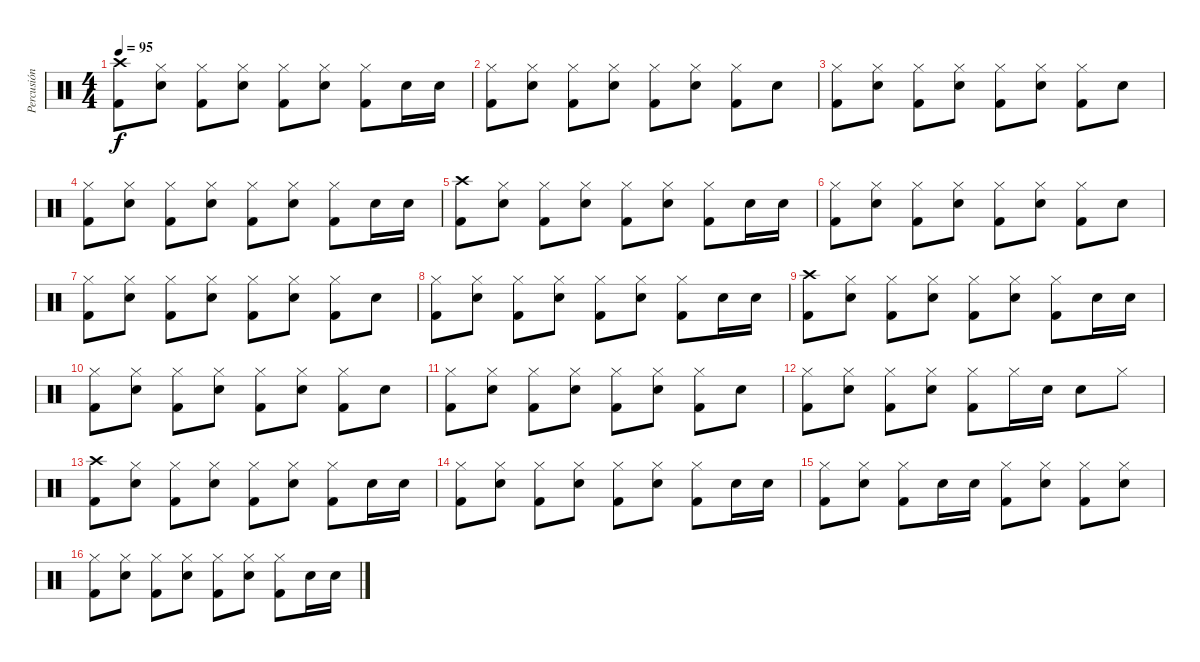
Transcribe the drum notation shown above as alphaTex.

\track ("Percusión" "Percusión") {instrument percussion}
\staff {score}
\articulation defaults
\ts (4 4)
\tempo 95
\clef neutral
\ks c
("Kick (hit) 2" "Crash high (hit)").8{dy f} ("Snare (hit) 2" "Hi-Hat (closed)").8 ("Kick (hit) 2" "Hi-Hat (closed)").8 ("Snare (hit) 2" "Hi-Hat (closed)").8 ("Kick (hit) 2" "Hi-Hat (closed)").8 ("Snare (hit) 2" "Hi-Hat (closed)").8 ("Kick (hit) 2" "Hi-Hat (closed)").8 "Snare (hit) 2".16 "Snare (hit) 2".16 |
("Kick (hit) 2" "Hi-Hat (closed)").8 ("Snare (hit) 2" "Hi-Hat (closed)").8 ("Kick (hit) 2" "Hi-Hat (closed)").8 ("Snare (hit) 2" "Hi-Hat (closed)").8 ("Kick (hit) 2" "Hi-Hat (closed)").8 ("Snare (hit) 2" "Hi-Hat (closed)").8 ("Kick (hit) 2" "Hi-Hat (closed)").8 "Snare (hit) 2".8 |
("Kick (hit) 2" "Hi-Hat (closed)").8 ("Snare (hit) 2" "Hi-Hat (closed)").8 ("Kick (hit) 2" "Hi-Hat (closed)").8 ("Snare (hit) 2" "Hi-Hat (closed)").8 ("Kick (hit) 2" "Hi-Hat (closed)").8 ("Snare (hit) 2" "Hi-Hat (closed)").8 ("Kick (hit) 2" "Hi-Hat (closed)").8 "Snare (hit) 2".8 |
("Kick (hit) 2" "Hi-Hat (closed)").8 ("Snare (hit) 2" "Hi-Hat (closed)").8 ("Kick (hit) 2" "Hi-Hat (closed)").8 ("Snare (hit) 2" "Hi-Hat (closed)").8 ("Kick (hit) 2" "Hi-Hat (closed)").8 ("Snare (hit) 2" "Hi-Hat (closed)").8 ("Kick (hit) 2" "Hi-Hat (closed)").8 "Snare (hit) 2".16 "Snare (hit) 2".16 |
("Kick (hit) 2" "Crash high (hit)").8 ("Snare (hit) 2" "Hi-Hat (closed)").8 ("Kick (hit) 2" "Hi-Hat (closed)").8 ("Snare (hit) 2" "Hi-Hat (closed)").8 ("Kick (hit) 2" "Hi-Hat (closed)").8 ("Snare (hit) 2" "Hi-Hat (closed)").8 ("Kick (hit) 2" "Hi-Hat (closed)").8 "Snare (hit) 2".16 "Snare (hit) 2".16 |
("Kick (hit) 2" "Hi-Hat (closed)").8 ("Snare (hit) 2" "Hi-Hat (closed)").8 ("Kick (hit) 2" "Hi-Hat (closed)").8 ("Snare (hit) 2" "Hi-Hat (closed)").8 ("Kick (hit) 2" "Hi-Hat (closed)").8 ("Snare (hit) 2" "Hi-Hat (closed)").8 ("Kick (hit) 2" "Hi-Hat (closed)").8 "Snare (hit) 2".8 |
("Kick (hit) 2" "Hi-Hat (closed)").8 ("Snare (hit) 2" "Hi-Hat (closed)").8 ("Kick (hit) 2" "Hi-Hat (closed)").8 ("Snare (hit) 2" "Hi-Hat (closed)").8 ("Kick (hit) 2" "Hi-Hat (closed)").8 ("Snare (hit) 2" "Hi-Hat (closed)").8 ("Kick (hit) 2" "Hi-Hat (closed)").8 "Snare (hit) 2".8 |
("Kick (hit) 2" "Hi-Hat (closed)").8 ("Snare (hit) 2" "Hi-Hat (closed)").8 ("Kick (hit) 2" "Hi-Hat (closed)").8 ("Snare (hit) 2" "Hi-Hat (closed)").8 ("Kick (hit) 2" "Hi-Hat (closed)").8 ("Snare (hit) 2" "Hi-Hat (closed)").8 ("Kick (hit) 2" "Hi-Hat (closed)").8 "Snare (hit) 2".16 "Snare (hit) 2".16 |
("Kick (hit) 2" "Crash high (hit)").8 ("Snare (hit) 2" "Hi-Hat (closed)").8 ("Kick (hit) 2" "Hi-Hat (closed)").8 ("Snare (hit) 2" "Hi-Hat (closed)").8 ("Kick (hit) 2" "Hi-Hat (closed)").8 ("Snare (hit) 2" "Hi-Hat (closed)").8 ("Kick (hit) 2" "Hi-Hat (closed)").8 "Snare (hit) 2".16 "Snare (hit) 2".16 |
("Kick (hit) 2" "Hi-Hat (closed)").8 ("Snare (hit) 2" "Hi-Hat (closed)").8 ("Kick (hit) 2" "Hi-Hat (closed)").8 ("Snare (hit) 2" "Hi-Hat (closed)").8 ("Kick (hit) 2" "Hi-Hat (closed)").8 ("Snare (hit) 2" "Hi-Hat (closed)").8 ("Kick (hit) 2" "Hi-Hat (closed)").8 "Snare (hit) 2".8 |
("Kick (hit) 2" "Hi-Hat (closed)").8 ("Snare (hit) 2" "Hi-Hat (closed)").8 ("Kick (hit) 2" "Hi-Hat (closed)").8 ("Snare (hit) 2" "Hi-Hat (closed)").8 ("Kick (hit) 2" "Hi-Hat (closed)").8 ("Snare (hit) 2" "Hi-Hat (closed)").8 ("Kick (hit) 2" "Hi-Hat (closed)").8 "Snare (hit) 2".8 |
("Kick (hit) 2" "Hi-Hat (closed)").8 ("Snare (hit) 2" "Hi-Hat (closed)").8 ("Kick (hit) 2" "Hi-Hat (closed)").8 ("Snare (hit) 2" "Hi-Hat (closed)").8 ("Kick (hit) 2" "Hi-Hat (closed)").8 "Hi-Hat (closed)".16 "Snare (hit) 2".16 "Snare (hit) 2".8 "Hi-Hat (closed)".8 |
("Kick (hit) 2" "Crash high (hit)").8 ("Snare (hit) 2" "Hi-Hat (closed)").8 ("Kick (hit) 2" "Hi-Hat (closed)").8 ("Snare (hit) 2" "Hi-Hat (closed)").8 ("Kick (hit) 2" "Hi-Hat (closed)").8 ("Snare (hit) 2" "Hi-Hat (closed)").8 ("Kick (hit) 2" "Hi-Hat (closed)").8 "Snare (hit) 2".16 "Snare (hit) 2".16 |
("Kick (hit) 2" "Hi-Hat (closed)").8 ("Snare (hit) 2" "Hi-Hat (closed)").8 ("Kick (hit) 2" "Hi-Hat (closed)").8 ("Snare (hit) 2" "Hi-Hat (closed)").8 ("Kick (hit) 2" "Hi-Hat (closed)").8 ("Snare (hit) 2" "Hi-Hat (closed)").8 ("Kick (hit) 2" "Hi-Hat (closed)").8 "Snare (hit) 2".16 "Snare (hit) 2".16 |
("Kick (hit) 2" "Hi-Hat (closed)").8 ("Snare (hit) 2" "Hi-Hat (closed)").8 ("Kick (hit) 2" "Hi-Hat (closed)").8 "Snare (hit) 2".16 "Snare (hit) 2".16 ("Kick (hit) 2" "Hi-Hat (closed)").8 ("Snare (hit) 2" "Hi-Hat (closed)").8 ("Kick (hit) 2" "Hi-Hat (closed)").8 ("Snare (hit) 2" "Hi-Hat (closed)").8 |
("Kick (hit) 2" "Hi-Hat (closed)").8 ("Snare (hit) 2" "Hi-Hat (closed)").8 ("Kick (hit) 2" "Hi-Hat (closed)").8 ("Snare (hit) 2" "Hi-Hat (closed)").8 ("Kick (hit) 2" "Hi-Hat (closed)").8 ("Snare (hit) 2" "Hi-Hat (closed)").8 ("Kick (hit) 2" "Hi-Hat (closed)").8 "Snare (hit) 2".16 "Snare (hit) 2".16
